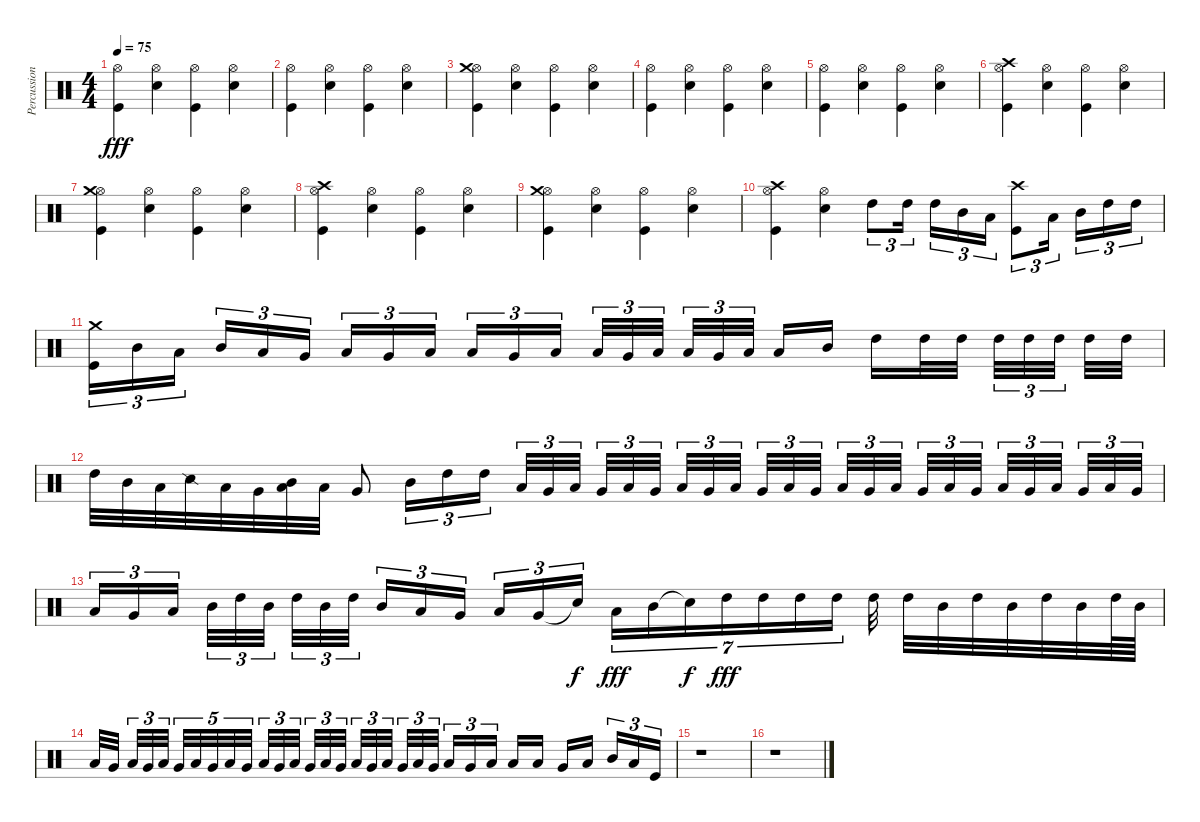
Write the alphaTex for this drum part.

\track ("Percussion" "Percussion") {instrument percussion}
\staff {score}
\articulation defaults
\ts (4 4)
\tempo 75
\clef neutral
\ks c
("Hi-Hat (open)" "Kick (hit)").4{dy fff} ("Hi-Hat (open)" "Snare (hit) 2").4 ("Hi-Hat (open)" "Kick (hit)").4 ("Hi-Hat (open)" "Snare (hit) 2").4 |
("Hi-Hat (open)" "Kick (hit)").4 ("Hi-Hat (open)" "Snare (hit) 2").4 ("Hi-Hat (open)" "Kick (hit)").4 ("Hi-Hat (open)" "Snare (hit) 2").4 |
("Hi-Hat (open)" "Crash medium (hit)" "Kick (hit)").4 ("Hi-Hat (open)" "Snare (hit) 2").4 ("Hi-Hat (open)" "Kick (hit)").4 ("Hi-Hat (open)" "Snare (hit) 2").4 |
("Hi-Hat (open)" "Kick (hit)").4 ("Hi-Hat (open)" "Snare (hit) 2").4 ("Hi-Hat (open)" "Kick (hit)").4 ("Hi-Hat (open)" "Snare (hit) 2").4 |
("Hi-Hat (open)" "Kick (hit)").4 ("Hi-Hat (open)" "Snare (hit) 2").4 ("Hi-Hat (open)" "Kick (hit)").4 ("Hi-Hat (open)" "Snare (hit) 2").4 |
("Hi-Hat (open)" "Crash high (hit)" "Kick (hit)").4 ("Hi-Hat (open)" "Snare (hit) 2").4 ("Hi-Hat (open)" "Kick (hit)").4 ("Hi-Hat (open)" "Snare (hit) 2").4 |
("Hi-Hat (open)" "Crash medium (hit)" "Kick (hit)").4 ("Hi-Hat (open)" "Snare (hit) 2").4 ("Hi-Hat (open)" "Kick (hit)").4 ("Hi-Hat (open)" "Snare (hit) 2").4 |
("Hi-Hat (open)" "Crash high (hit)" "Kick (hit)").4 ("Hi-Hat (open)" "Snare (hit) 2").4 ("Hi-Hat (open)" "Kick (hit)").4 ("Hi-Hat (open)" "Snare (hit) 2").4 |
("Hi-Hat (open)" "Crash medium (hit)" "Kick (hit)").4 ("Hi-Hat (open)" "Snare (hit) 2").4 ("Hi-Hat (open)" "Kick (hit)").4 ("Hi-Hat (open)" "Snare (hit) 2").4 |
("Hi-Hat (open)" "Crash high (hit)" "Kick (hit)").4 ("Hi-Hat (open)" "Snare (hit) 2").4 "High Tom (hit)".8{tu (3 2)} "High Tom (hit)".16{tu (3 2)} "High Tom (hit)".16{tu (3 2)} "Mid Tom (hit)".16{tu (3 2)} "Low Tom (hit)".16{tu (3 2)} ("Crash high (hit)" "Kick (hit)").8{tu (3 2)} "Low Tom (hit)".16{tu (3 2)} "Mid Tom (hit)".16{tu (3 2)} "High Tom (hit)".16{tu (3 2)} "High Tom (hit)".16{tu (3 2)} |
("Crash medium (hit)" "Kick (hit)").16{tu (3 2)} "Mid Tom (hit)".16{tu (3 2)} "Low Tom (hit)".16{tu (3 2)} "Mid Tom (hit)".16{tu (3 2)} "Low Tom (hit)".16{tu (3 2)} "Very Low Tom (hit)".16{tu (3 2)} "Low Tom (hit)".16{tu (3 2)} "Very Low Tom (hit)".16{tu (3 2)} "Low Floor Tom (hit)".16{tu (3 2)} "Low Tom (hit)".16{tu (3 2)} "Very Low Tom (hit)".16{tu (3 2)} "Low Floor Tom (hit)".16{tu (3 2)} "Low Tom (hit)".32{tu (3 2)} "Very Low Tom (hit)".32{tu (3 2)} "Low Floor Tom (hit)".32{tu (3 2)} "Low Tom (hit)".32{tu (3 2)} "Very Low Tom (hit)".32{tu (3 2)} "Low Floor Tom (hit)".32{tu (3 2)} "Low Tom (hit)".16 "Mid Tom (hit)".16 "High Tom (hit)".16 "High Tom (hit)".32 "High Tom (hit)".32 "High Tom (hit)".32{tu (3 2)} "High Tom (hit)".32{tu (3 2)} "High Tom (hit)".32{tu (3 2)} "High Tom (hit)".32 "High Tom (hit)".32 |
"High Tom (hit)".32 "Mid Tom (hit)".32 "Low Tom (hit)".32 "Snare (side stick) 2".32 "Low Tom (hit)".32 "Very Low Tom (hit)".32 ("Mid Tom (hit)" "Low Floor Tom (hit)").32 "Low Tom (hit)".32 "Very Low Tom (hit)".8 "Mid Tom (hit)".16{tu (3 2)} "High Tom (hit)".16{tu (3 2)} "High Tom (hit)".16{tu (3 2)} "Low Floor Tom (hit)".32{tu (3 2)} "Very Low Tom (hit)".32{tu (3 2)} "Low Floor Tom (hit)".32{tu (3 2)} "Very Low Tom (hit)".32{tu (3 2)} "Low Floor Tom (hit)".32{tu (3 2)} "Very Low Tom (hit)".32{tu (3 2)} "Low Floor Tom (hit)".32{tu (3 2)} "Very Low Tom (hit)".32{tu (3 2)} "Low Floor Tom (hit)".32{tu (3 2)} "Very Low Tom (hit)".32{tu (3 2)} "Low Floor Tom (hit)".32{tu (3 2)} "Very Low Tom (hit)".32{tu (3 2)} "Low Floor Tom (hit)".32{tu (3 2)} "Very Low Tom (hit)".32{tu (3 2)} "Low Floor Tom (hit)".32{tu (3 2)} "Very Low Tom (hit)".32{tu (3 2)} "Low Floor Tom (hit)".32{tu (3 2)} "Very Low Tom (hit)".32{tu (3 2)} "Low Floor Tom (hit)".32{tu (3 2)} "Very Low Tom (hit)".32{tu (3 2)} "Low Floor Tom (hit)".32{tu (3 2)} "Very Low Tom (hit)".32{tu (3 2)} "Low Floor Tom (hit)".32{tu (3 2)} "Very Low Tom (hit)".32{tu (3 2)} |
"Low Tom (hit)".16{tu (3 2)} "Very Low Tom (hit)".16{tu (3 2)} "Low Floor Tom (hit)".16{tu (3 2)} "Mid Tom (hit)".32{tu (3 2)} "High Tom (hit)".32{tu (3 2)} "Mid Tom (hit)".32{tu (3 2)} "High Tom (hit)".32{tu (3 2)} "Mid Tom (hit)".32{tu (3 2)} "High Tom (hit)".32{tu (3 2)} "Mid Tom (hit)".16{tu (3 2)} "Low Tom (hit)".16{tu (3 2)} "Very Low Tom (hit)".16{tu (3 2)} "Low Floor Tom (hit)".16{tu (3 2)} "Very Low Tom (hit)".16{tu (3 2)} "Snare (hit)"{t}.16{tu (3 2) dy f} "Low Tom (hit)".16{tu (7 4) dy fff} "Mid Tom (hit)".16{tu (7 4)} "Snare (hit)"{t}.16{tu (7 4) dy f} "High Tom (hit)".16{tu (7 4) dy fff} "High Tom (hit)".16{tu (7 4)} "High Tom (hit)".16{tu (7 4)} "High Tom (hit)".16{tu (7 4)} "High Tom (hit)".32 "High Tom (hit)".32 "Mid Tom (hit)".32 "High Tom (hit)".32 "Mid Tom (hit)".32 "High Tom (hit)".32 "Mid Tom (hit)".32 "High Tom (hit)".64 "Mid Tom (hit)".64 |
"Low Tom (hit)".32 "Very Low Tom (hit)".32 "Low Floor Tom (hit)".32{tu (3 2)} "Very Low Tom (hit)".32{tu (3 2)} "Low Floor Tom (hit)".32{tu (3 2)} "Very Low Tom (hit)".32{tu (5 4)} "Low Floor Tom (hit)".32{tu (5 4)} "Very Low Tom (hit)".32{tu (5 4)} "Low Floor Tom (hit)".32{tu (5 4)} "Very Low Tom (hit)".32{tu (5 4)} "Low Floor Tom (hit)".32{tu (3 2)} "Very Low Tom (hit)".32{tu (3 2)} "Low Floor Tom (hit)".32{tu (3 2)} "Very Low Tom (hit)".32{tu (3 2)} "Low Floor Tom (hit)".32{tu (3 2)} "Very Low Tom (hit)".32{tu (3 2)} "Low Floor Tom (hit)".32{tu (3 2)} "Very Low Tom (hit)".32{tu (3 2)} "Low Floor Tom (hit)".32{tu (3 2)} "Very Low Tom (hit)".32{tu (3 2)} "Low Floor Tom (hit)".32{tu (3 2)} "Very Low Tom (hit)".32{tu (3 2)} "Low Floor Tom (hit)".16{tu (3 2)} "Very Low Tom (hit)".16{tu (3 2)} "Low Tom (hit)".16{tu (3 2)} "Low Tom (hit)".16 "Low Tom (hit)".16 "Very Low Tom (hit)".16 "Low Floor Tom (hit)".16 "Mid Tom (hit)".16{tu (3 2)} "Low Floor Tom (hit)".16{tu (3 2)} "Kick (hit)".16{tu (3 2)} |
r.1 |
r.1
